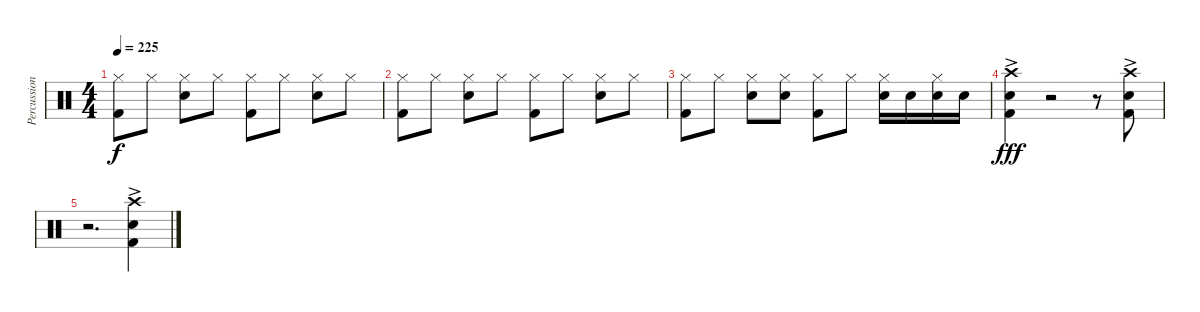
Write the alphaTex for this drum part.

\track ("Percussions" "Percussion") {instrument percussion}
\staff {score}
\articulation defaults
\ts (4 4)
\tempo 225
\clef neutral
\ks c
("Hi-Hat (closed)" "Kick (hit) 2").8{dy f} "Hi-Hat (closed)".8 ("Hi-Hat (closed)" "Snare (hit) 2").8 "Hi-Hat (closed)".8 ("Hi-Hat (closed)" "Kick (hit) 2").8 "Hi-Hat (closed)".8 ("Hi-Hat (closed)" "Snare (hit) 2").8 "Hi-Hat (closed)".8 |
("Hi-Hat (closed)" "Kick (hit) 2").8 "Hi-Hat (closed)".8 ("Hi-Hat (closed)" "Snare (hit) 2").8 "Hi-Hat (closed)".8 ("Hi-Hat (closed)" "Kick (hit) 2").8 "Hi-Hat (closed)".8 ("Hi-Hat (closed)" "Snare (hit) 2").8 "Hi-Hat (closed)".8 |
("Hi-Hat (closed)" "Kick (hit) 2").8 "Hi-Hat (closed)".8 ("Hi-Hat (closed)" "Snare (hit) 2").8 ("Hi-Hat (closed)" "Snare (hit) 2").8 ("Hi-Hat (closed)" "Kick (hit) 2").8 "Hi-Hat (closed)".8 ("Hi-Hat (closed)" "Snare (hit) 2").16 "Snare (hit) 2".16 ("Hi-Hat (closed)" "Snare (hit) 2").16 "Snare (hit) 2".16 |
("Crash high (hit)"{ac} "Snare (hit) 2" "Kick (hit) 2").4{dy fff} r.2 r.8 ("Crash high (hit)"{ac} "Snare (hit) 2" "Kick (hit) 2").8 |
r.2{d} ("Crash high (hit)"{ac} "Snare (hit) 2" "Kick (hit) 2").4
